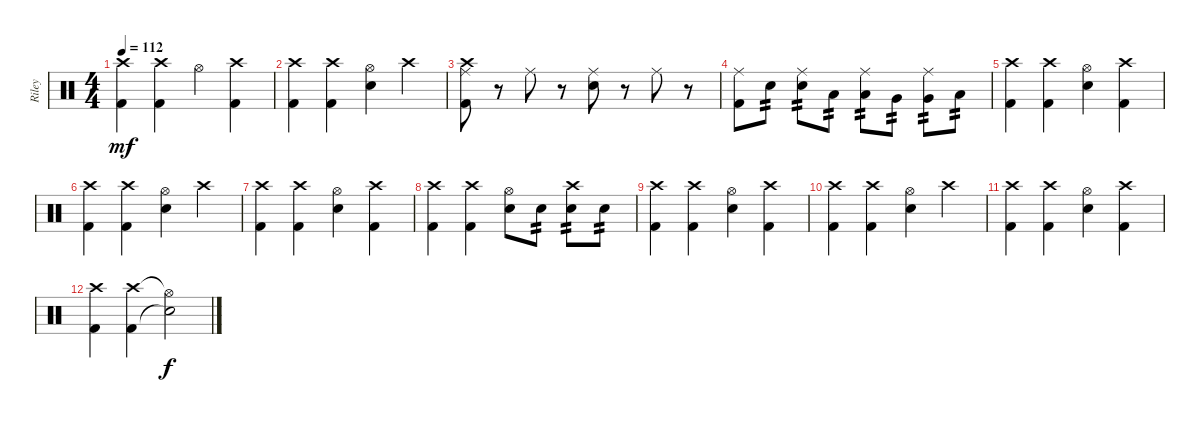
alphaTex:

\track ("Riley" "Riley") {instrument percussion}
\staff {score}
\articulation defaults
\ts (4 4)
\tempo 112
\clef neutral
\ks c
("Crash high (hit)" "Kick (hit) 2").4{dy mf} ("Crash high (hit)" "Kick (hit) 2").4 "Hi-Hat (open)".4 ("Crash high (hit)" "Kick (hit) 2").4 |
("Crash high (hit)" "Kick (hit) 2").4 ("Crash high (hit)" "Kick (hit) 2").4 ("Hi-Hat (open)" "Snare (hit) 2").4 "Crash high (hit)".4 |
("Crash high (hit)" "Ride (middle)" "Kick (hit) 2").8 r.8 "Ride (middle)".8 r.8 ("Ride (middle)" "Snare (hit) 2").8 r.8 "Ride (middle)".8 r.8 |
("Ride (middle)" "Kick (hit) 2").8 "Snare (hit) 2".8{tp 2} ("Ride (middle)" "Snare (hit) 2").8{tp 2} "Low Tom (hit)".8{tp 2} ("Ride (middle)" "Low Tom (hit)").8{tp 2} "Very Low Tom (hit)".8{tp 2} ("Ride (middle)" "Very Low Tom (hit)").8{tp 2} "Low Floor Tom (hit)".8{tp 2} |
("Crash high (hit)" "Kick (hit) 2").4 ("Crash high (hit)" "Kick (hit) 2").4 ("Hi-Hat (open)" "Snare (hit) 2").4 ("Crash high (hit)" "Kick (hit) 2").4 |
("Crash high (hit)" "Kick (hit) 2").4 ("Crash high (hit)" "Kick (hit) 2").4 ("Hi-Hat (open)" "Snare (hit) 2").4 "Crash high (hit)".4 |
("Crash high (hit)" "Kick (hit) 2").4 ("Crash high (hit)" "Kick (hit) 2").4 ("Hi-Hat (open)" "Snare (hit) 2").4 ("Crash high (hit)" "Kick (hit) 2").4 |
("Crash high (hit)" "Kick (hit) 2").4 ("Crash high (hit)" "Kick (hit) 2").4 ("Hi-Hat (open)" "Snare (hit) 2").8 "Snare (hit) 2".8{tp 2} ("Crash high (hit)" "Snare (hit) 2").8{tp 2} "Snare (hit) 2".8{tp 2} |
("Crash high (hit)" "Kick (hit) 2").4 ("Crash high (hit)" "Kick (hit) 2").4 ("Hi-Hat (open)" "Snare (hit) 2").4 ("Crash high (hit)" "Kick (hit) 2").4 |
("Crash high (hit)" "Kick (hit) 2").4 ("Crash high (hit)" "Kick (hit) 2").4 ("Hi-Hat (open)" "Snare (hit) 2").4 "Crash high (hit)".4 |
("Crash high (hit)" "Kick (hit) 2").4 ("Crash high (hit)" "Kick (hit) 2").4 ("Hi-Hat (open)" "Snare (hit) 2").4 ("Crash high (hit)" "Kick (hit) 2").4 |
("Crash high (hit)" "Kick (hit) 2").4 ("Crash high (hit)" "Kick (hit) 2").4 ("Hi-Hat (open)"{t} "Snare (hit)"{t}).2{dy f}
